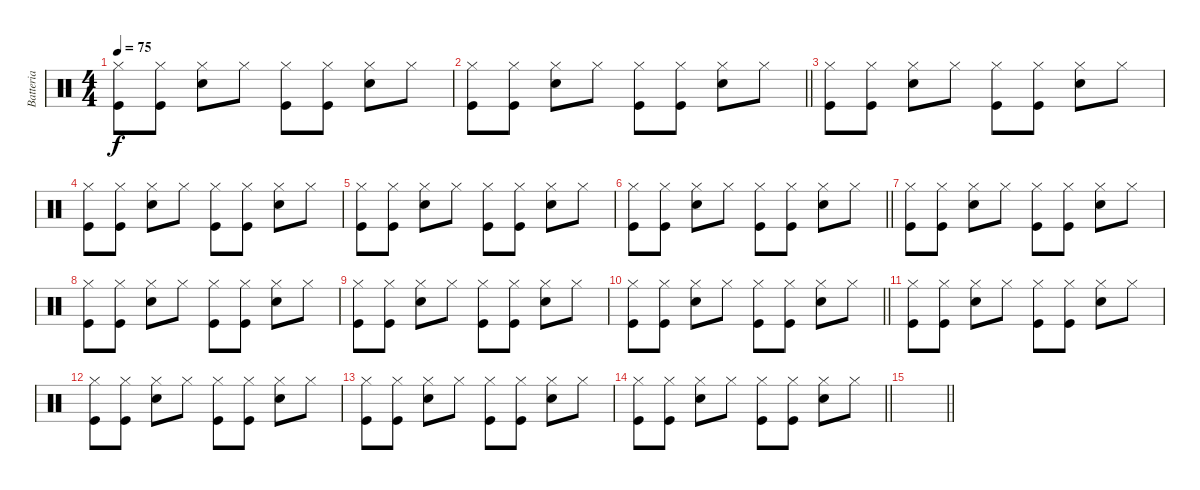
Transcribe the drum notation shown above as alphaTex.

\track ("Batteria" "Batteria") {instrument percussion}
\staff {score}
\articulation defaults
\ts (4 4)
\tempo 75
\clef neutral
\ks c
("Hi-Hat (closed)" "Kick (hit)").8{dy f} ("Hi-Hat (closed)" "Kick (hit)").8 ("Hi-Hat (closed)" "Snare (hit) 2").8 "Hi-Hat (closed)".8 ("Hi-Hat (closed)" "Kick (hit)").8 ("Hi-Hat (closed)" "Kick (hit)").8 ("Hi-Hat (closed)" "Snare (hit) 2").8 "Hi-Hat (closed)".8 |
\barLineRight lightlight
("Hi-Hat (closed)" "Kick (hit)").8 ("Hi-Hat (closed)" "Kick (hit)").8 ("Hi-Hat (closed)" "Snare (hit) 2").8 "Hi-Hat (closed)".8 ("Hi-Hat (closed)" "Kick (hit)").8 ("Hi-Hat (closed)" "Kick (hit)").8 ("Hi-Hat (closed)" "Snare (hit) 2").8 "Hi-Hat (closed)".8 |
("Hi-Hat (closed)" "Kick (hit)").8 ("Hi-Hat (closed)" "Kick (hit)").8 ("Hi-Hat (closed)" "Snare (hit) 2").8 "Hi-Hat (closed)".8 ("Hi-Hat (closed)" "Kick (hit)").8 ("Hi-Hat (closed)" "Kick (hit)").8 ("Hi-Hat (closed)" "Snare (hit) 2").8 "Hi-Hat (closed)".8 |
("Hi-Hat (closed)" "Kick (hit)").8 ("Hi-Hat (closed)" "Kick (hit)").8 ("Hi-Hat (closed)" "Snare (hit) 2").8 "Hi-Hat (closed)".8 ("Hi-Hat (closed)" "Kick (hit)").8 ("Hi-Hat (closed)" "Kick (hit)").8 ("Hi-Hat (closed)" "Snare (hit) 2").8 "Hi-Hat (closed)".8 |
("Hi-Hat (closed)" "Kick (hit)").8 ("Hi-Hat (closed)" "Kick (hit)").8 ("Hi-Hat (closed)" "Snare (hit) 2").8 "Hi-Hat (closed)".8 ("Hi-Hat (closed)" "Kick (hit)").8 ("Hi-Hat (closed)" "Kick (hit)").8 ("Hi-Hat (closed)" "Snare (hit) 2").8 "Hi-Hat (closed)".8 |
\barLineRight lightlight
("Hi-Hat (closed)" "Kick (hit)").8 ("Hi-Hat (closed)" "Kick (hit)").8 ("Hi-Hat (closed)" "Snare (hit) 2").8 "Hi-Hat (closed)".8 ("Hi-Hat (closed)" "Kick (hit)").8 ("Hi-Hat (closed)" "Kick (hit)").8 ("Hi-Hat (closed)" "Snare (hit) 2").8 "Hi-Hat (closed)".8 |
("Hi-Hat (closed)" "Kick (hit)").8 ("Hi-Hat (closed)" "Kick (hit)").8 ("Hi-Hat (closed)" "Snare (hit) 2").8 "Hi-Hat (closed)".8 ("Hi-Hat (closed)" "Kick (hit)").8 ("Hi-Hat (closed)" "Kick (hit)").8 ("Hi-Hat (closed)" "Snare (hit) 2").8 "Hi-Hat (closed)".8 |
("Hi-Hat (closed)" "Kick (hit)").8 ("Hi-Hat (closed)" "Kick (hit)").8 ("Hi-Hat (closed)" "Snare (hit) 2").8 "Hi-Hat (closed)".8 ("Hi-Hat (closed)" "Kick (hit)").8 ("Hi-Hat (closed)" "Kick (hit)").8 ("Hi-Hat (closed)" "Snare (hit) 2").8 "Hi-Hat (closed)".8 |
("Hi-Hat (closed)" "Kick (hit)").8 ("Hi-Hat (closed)" "Kick (hit)").8 ("Hi-Hat (closed)" "Snare (hit) 2").8 "Hi-Hat (closed)".8 ("Hi-Hat (closed)" "Kick (hit)").8 ("Hi-Hat (closed)" "Kick (hit)").8 ("Hi-Hat (closed)" "Snare (hit) 2").8 "Hi-Hat (closed)".8 |
\barLineRight lightlight
("Hi-Hat (closed)" "Kick (hit)").8 ("Hi-Hat (closed)" "Kick (hit)").8 ("Hi-Hat (closed)" "Snare (hit) 2").8 "Hi-Hat (closed)".8 ("Hi-Hat (closed)" "Kick (hit)").8 ("Hi-Hat (closed)" "Kick (hit)").8 ("Hi-Hat (closed)" "Snare (hit) 2").8 "Hi-Hat (closed)".8 |
("Hi-Hat (closed)" "Kick (hit)").8 ("Hi-Hat (closed)" "Kick (hit)").8 ("Hi-Hat (closed)" "Snare (hit) 2").8 "Hi-Hat (closed)".8 ("Hi-Hat (closed)" "Kick (hit)").8 ("Hi-Hat (closed)" "Kick (hit)").8 ("Hi-Hat (closed)" "Snare (hit) 2").8 "Hi-Hat (closed)".8 |
("Hi-Hat (closed)" "Kick (hit)").8 ("Hi-Hat (closed)" "Kick (hit)").8 ("Hi-Hat (closed)" "Snare (hit) 2").8 "Hi-Hat (closed)".8 ("Hi-Hat (closed)" "Kick (hit)").8 ("Hi-Hat (closed)" "Kick (hit)").8 ("Hi-Hat (closed)" "Snare (hit) 2").8 "Hi-Hat (closed)".8 |
("Hi-Hat (closed)" "Kick (hit)").8 ("Hi-Hat (closed)" "Kick (hit)").8 ("Hi-Hat (closed)" "Snare (hit) 2").8 "Hi-Hat (closed)".8 ("Hi-Hat (closed)" "Kick (hit)").8 ("Hi-Hat (closed)" "Kick (hit)").8 ("Hi-Hat (closed)" "Snare (hit) 2").8 "Hi-Hat (closed)".8 |
\barLineRight lightlight
("Hi-Hat (closed)" "Kick (hit)").8 ("Hi-Hat (closed)" "Kick (hit)").8 ("Hi-Hat (closed)" "Snare (hit) 2").8 "Hi-Hat (closed)".8 ("Hi-Hat (closed)" "Kick (hit)").8 ("Hi-Hat (closed)" "Kick (hit)").8 ("Hi-Hat (closed)" "Snare (hit) 2").8 "Hi-Hat (closed)".8 |
\barLineRight lightlight
